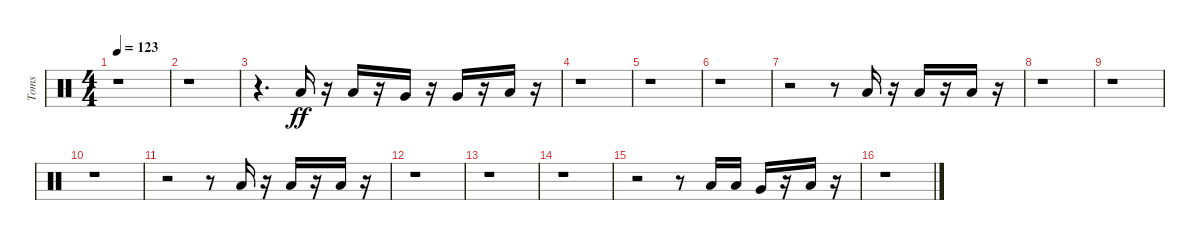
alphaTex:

\track ("Toms" "Toms") {instrument percussion}
\staff {score}
\articulation defaults
\ts (4 4)
\tempo 123
\clef neutral
\ks c
r.1{dy ff} |
r.1 |
r.4{d} "Low Tom (hit)".16 r.16 "Low Tom (hit)".16 r.16 "Very Low Tom (hit)".16 r.16 "Very Low Tom (hit)".16 r.16 "Low Floor Tom (hit)".16 r.16 |
r.1 |
r.1 |
r.1 |
r.2 r.8 "Low Floor Tom (hit)".16 r.16 "Low Floor Tom (hit)".16 r.16 "Low Tom (hit)".16 r.16 |
r.1 |
r.1 |
r.1 |
r.2 r.8 "Low Floor Tom (hit)".16 r.16 "Low Floor Tom (hit)".16 r.16 "Low Tom (hit)".16 r.16 |
r.1 |
r.1 |
r.1 |
r.2 r.8 "Low Tom (hit)".16 "Low Tom (hit)".16 "Very Low Tom (hit)".16 r.16 "Low Floor Tom (hit)".16 r.16 |
r.1
